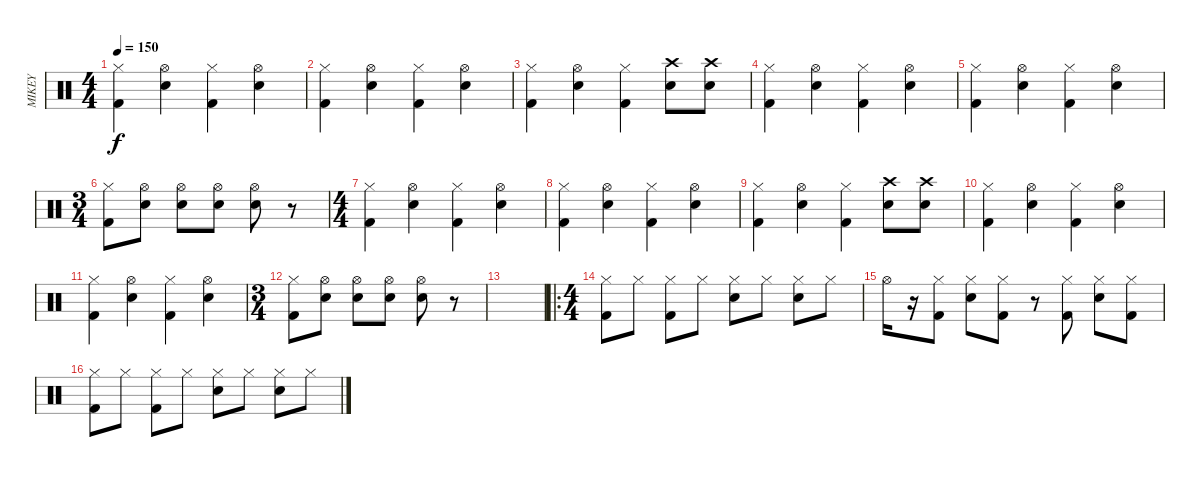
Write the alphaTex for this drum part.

\track ("MIKEY" "MIKEY") {instrument percussion}
\staff {score}
\articulation defaults
\ts (4 4)
\tempo 150
\clef neutral
\ks c
("Hi-Hat (closed)" "Kick (hit) 2").4{dy f} ("Hi-Hat (open)" "Snare (hit) 2").4 ("Hi-Hat (closed)" "Kick (hit) 2").4 ("Hi-Hat (open)" "Snare (hit) 2").4 |
("Hi-Hat (closed)" "Kick (hit) 2").4 ("Hi-Hat (open)" "Snare (hit) 2").4 ("Hi-Hat (closed)" "Kick (hit) 2").4 ("Hi-Hat (open)" "Snare (hit) 2").4 |
("Hi-Hat (closed)" "Kick (hit) 2").4 ("Hi-Hat (open)" "Snare (hit) 2").4 ("Hi-Hat (closed)" "Kick (hit) 2").4 ("Crash high (hit)" "Snare (hit) 2").8 ("Crash high (hit)" "Snare (hit) 2").8 |
("Hi-Hat (closed)" "Kick (hit) 2").4 ("Hi-Hat (open)" "Snare (hit) 2").4 ("Hi-Hat (closed)" "Kick (hit) 2").4 ("Hi-Hat (open)" "Snare (hit) 2").4 |
("Hi-Hat (closed)" "Kick (hit) 2").4 ("Hi-Hat (open)" "Snare (hit) 2").4 ("Hi-Hat (closed)" "Kick (hit) 2").4 ("Hi-Hat (open)" "Snare (hit) 2").4 |
\ts (3 4)
("Hi-Hat (closed)" "Kick (hit) 2").8 ("Hi-Hat (open)" "Snare (hit) 2").8 ("Hi-Hat (open)" "Snare (hit) 2").8 ("Hi-Hat (open)" "Snare (hit) 2").8 ("Hi-Hat (open)" "Snare (hit) 2").8 r.8 |
\ts (4 4)
("Hi-Hat (closed)" "Kick (hit) 2").4 ("Hi-Hat (open)" "Snare (hit) 2").4 ("Hi-Hat (closed)" "Kick (hit) 2").4 ("Hi-Hat (open)" "Snare (hit) 2").4 |
("Hi-Hat (closed)" "Kick (hit) 2").4 ("Hi-Hat (open)" "Snare (hit) 2").4 ("Hi-Hat (closed)" "Kick (hit) 2").4 ("Hi-Hat (open)" "Snare (hit) 2").4 |
("Hi-Hat (closed)" "Kick (hit) 2").4 ("Hi-Hat (open)" "Snare (hit) 2").4 ("Hi-Hat (closed)" "Kick (hit) 2").4 ("Crash high (hit)" "Snare (hit) 2").8 ("Crash high (hit)" "Snare (hit) 2").8 |
("Hi-Hat (closed)" "Kick (hit) 2").4 ("Hi-Hat (open)" "Snare (hit) 2").4 ("Hi-Hat (closed)" "Kick (hit) 2").4 ("Hi-Hat (open)" "Snare (hit) 2").4 |
("Hi-Hat (closed)" "Kick (hit) 2").4 ("Hi-Hat (open)" "Snare (hit) 2").4 ("Hi-Hat (closed)" "Kick (hit) 2").4 ("Hi-Hat (open)" "Snare (hit) 2").4 |
\ts (3 4)
("Hi-Hat (closed)" "Kick (hit) 2").8 ("Hi-Hat (open)" "Snare (hit) 2").8 ("Hi-Hat (open)" "Snare (hit) 2").8 ("Hi-Hat (open)" "Snare (hit) 2").8 ("Hi-Hat (open)" "Snare (hit) 2").8 r.8 |
|
\ro
\ts (4 4)
("Hi-Hat (closed)" "Kick (hit) 2").8 "Hi-Hat (closed)".8 ("Hi-Hat (closed)" "Kick (hit) 2").8 "Hi-Hat (closed)".8 ("Hi-Hat (closed)" "Snare (hit) 2").8 "Hi-Hat (closed)".8 ("Hi-Hat (closed)" "Snare (hit) 2").8 "Hi-Hat (closed)".8 |
"Hi-Hat (open)".16 r.16 ("Hi-Hat (closed)" "Kick (hit) 2").8 ("Hi-Hat (closed)" "Snare (hit) 2").8 ("Hi-Hat (closed)" "Kick (hit) 2").8 r.8 ("Hi-Hat (closed)" "Kick (hit) 2").8 ("Hi-Hat (closed)" "Snare (hit) 2").8 ("Hi-Hat (closed)" "Kick (hit) 2").8 |
("Hi-Hat (closed)" "Kick (hit) 2").8 "Hi-Hat (closed)".8 ("Hi-Hat (closed)" "Kick (hit) 2").8 "Hi-Hat (closed)".8 ("Hi-Hat (closed)" "Snare (hit) 2").8 "Hi-Hat (closed)".8 ("Hi-Hat (closed)" "Snare (hit) 2").8 "Hi-Hat (closed)".8
